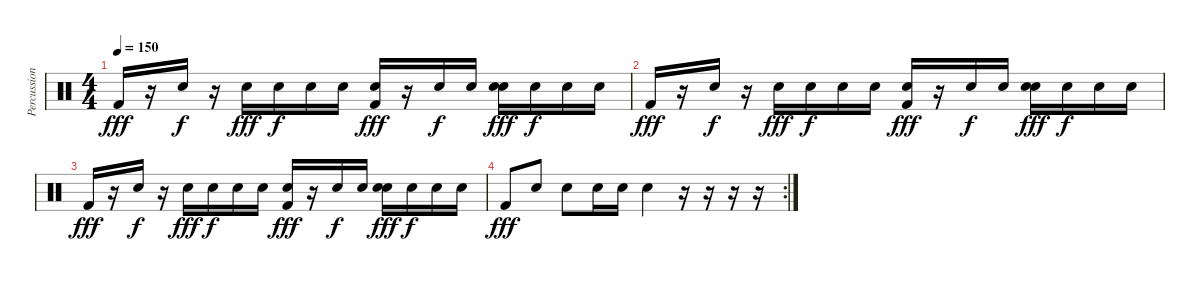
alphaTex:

\track ("Percussions" "Percussion") {instrument percussion}
\staff {score}
\articulation defaults
\ts (4 4)
\tempo 150
\clef neutral
\ks c "Kick (hit) 2".16{dy fff}
r.16 "Hand Clap (hit)".16{dy f} r.16 "Snare (hit) 2".16{dy fff} "Hand Clap (hit)".16{dy f} "Hand Clap (hit)".16 "Hand Clap (hit)".16 ("Hand Clap (hit)" "Kick (hit) 2").16{dy fff} r.16 "Hand Clap (hit)".16{dy f} "Hand Clap (hit)".16 ("Hand Clap (hit)" "Snare (hit) 2").16{dy fff} "Hand Clap (hit)".16{dy f} "Hand Clap (hit)".16 "Hand Clap (hit)".16 |
"Kick (hit) 2".16{dy fff} r.16 "Hand Clap (hit)".16{dy f} r.16 "Snare (hit) 2".16{dy fff} "Hand Clap (hit)".16{dy f} "Hand Clap (hit)".16 "Hand Clap (hit)".16 ("Hand Clap (hit)" "Kick (hit) 2").16{dy fff} r.16 "Hand Clap (hit)".16{dy f} "Hand Clap (hit)".16 ("Hand Clap (hit)" "Snare (hit) 2").16{dy fff} "Hand Clap (hit)".16{dy f} "Hand Clap (hit)".16 "Hand Clap (hit)".16 |
"Kick (hit) 2".16{dy fff} r.16 "Hand Clap (hit)".16{dy f} r.16 "Snare (hit) 2".16{dy fff} "Hand Clap (hit)".16{dy f} "Hand Clap (hit)".16 "Hand Clap (hit)".16 ("Hand Clap (hit)" "Kick (hit) 2").16{dy fff} r.16 "Hand Clap (hit)".16{dy f} "Hand Clap (hit)".16 ("Hand Clap (hit)" "Snare (hit) 2").16{dy fff} "Hand Clap (hit)".16{dy f} "Hand Clap (hit)".16 "Hand Clap (hit)".16 |
\rc 2 "Kick (hit) 2".8{dy fff} "Snare (hit) 2".8 "Snare (hit) 2".8 "Snare (hit) 2".16 "Snare (hit) 2".16 "Snare (hit) 2".4
r.16 r.16 r.16 r.16
